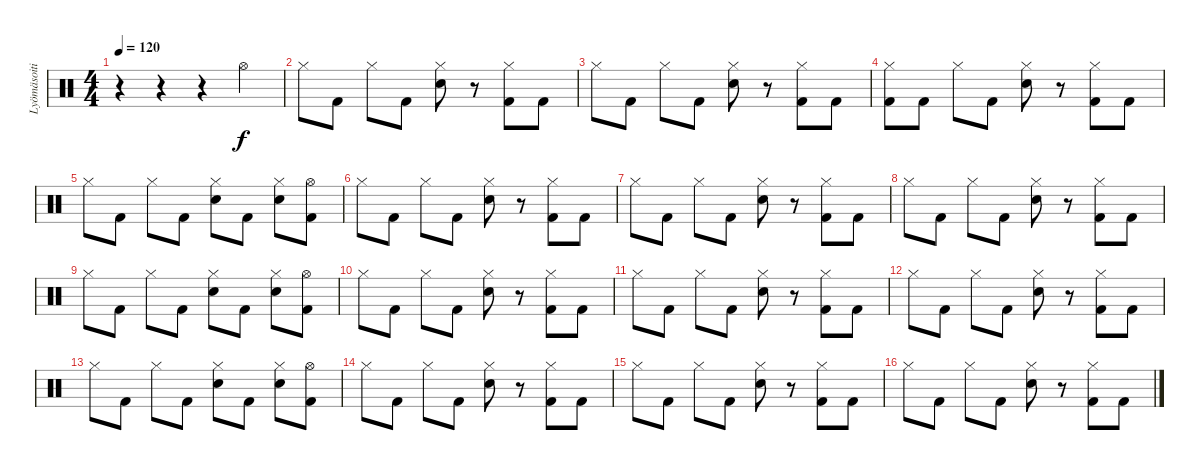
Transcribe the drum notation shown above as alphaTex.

\track ("Lyömäsoitin" "Lyömäsoiti") {instrument percussion}
\staff {score}
\articulation defaults
\ts (4 4)
\tempo 120
\clef neutral
\ks c
r.4{dy f} r.4 r.4 "Hi-Hat (open)".4 |
"Hi-Hat (closed)".8 "Kick (hit) 2".8 "Hi-Hat (closed)".8 "Kick (hit) 2".8 ("Hi-Hat (closed)" "Snare (hit) 2").8 r.8 ("Hi-Hat (closed)" "Kick (hit) 2").8 "Kick (hit) 2".8 |
"Hi-Hat (closed)".8 "Kick (hit) 2".8 "Hi-Hat (closed)".8 "Kick (hit) 2".8 ("Hi-Hat (closed)" "Snare (hit) 2").8 r.8 ("Hi-Hat (closed)" "Kick (hit) 2").8 "Kick (hit) 2".8 |
("Hi-Hat (closed)" "Kick (hit) 2").8 "Kick (hit) 2".8 "Hi-Hat (closed)".8 "Kick (hit) 2".8 ("Hi-Hat (closed)" "Snare (hit) 2").8 r.8 ("Hi-Hat (closed)" "Kick (hit) 2").8 "Kick (hit) 2".8 |
"Hi-Hat (closed)".8 "Kick (hit) 2".8 "Hi-Hat (closed)".8 "Kick (hit) 2".8 ("Hi-Hat (closed)" "Snare (hit) 2").8 "Kick (hit) 2".8 ("Hi-Hat (closed)" "Snare (hit) 2").8 ("Hi-Hat (open)" "Kick (hit) 2").8 |
"Hi-Hat (closed)".8 "Kick (hit) 2".8 "Hi-Hat (closed)".8 "Kick (hit) 2".8 ("Hi-Hat (closed)" "Snare (hit) 2").8 r.8 ("Hi-Hat (closed)" "Kick (hit) 2").8 "Kick (hit) 2".8 |
"Hi-Hat (closed)".8 "Kick (hit) 2".8 "Hi-Hat (closed)".8 "Kick (hit) 2".8 ("Hi-Hat (closed)" "Snare (hit) 2").8 r.8 ("Hi-Hat (closed)" "Kick (hit) 2").8 "Kick (hit) 2".8 |
"Hi-Hat (closed)".8 "Kick (hit) 2".8 "Hi-Hat (closed)".8 "Kick (hit) 2".8 ("Hi-Hat (closed)" "Snare (hit) 2").8 r.8 ("Hi-Hat (closed)" "Kick (hit) 2").8 "Kick (hit) 2".8 |
"Hi-Hat (closed)".8 "Kick (hit) 2".8 "Hi-Hat (closed)".8 "Kick (hit) 2".8 ("Hi-Hat (closed)" "Snare (hit) 2").8 "Kick (hit) 2".8 ("Hi-Hat (closed)" "Snare (hit) 2").8 ("Hi-Hat (open)" "Kick (hit) 2").8 |
"Hi-Hat (closed)".8 "Kick (hit) 2".8 "Hi-Hat (closed)".8 "Kick (hit) 2".8 ("Hi-Hat (closed)" "Snare (hit) 2").8 r.8 ("Hi-Hat (closed)" "Kick (hit) 2").8 "Kick (hit) 2".8 |
"Hi-Hat (closed)".8 "Kick (hit) 2".8 "Hi-Hat (closed)".8 "Kick (hit) 2".8 ("Hi-Hat (closed)" "Snare (hit) 2").8 r.8 ("Hi-Hat (closed)" "Kick (hit) 2").8 "Kick (hit) 2".8 |
"Hi-Hat (closed)".8 "Kick (hit) 2".8 "Hi-Hat (closed)".8 "Kick (hit) 2".8 ("Hi-Hat (closed)" "Snare (hit) 2").8 r.8 ("Hi-Hat (closed)" "Kick (hit) 2").8 "Kick (hit) 2".8 |
"Hi-Hat (closed)".8 "Kick (hit) 2".8 "Hi-Hat (closed)".8 "Kick (hit) 2".8 ("Hi-Hat (closed)" "Snare (hit) 2").8 "Kick (hit) 2".8 ("Hi-Hat (closed)" "Snare (hit) 2").8 ("Hi-Hat (open)" "Kick (hit) 2").8 |
"Hi-Hat (closed)".8 "Kick (hit) 2".8 "Hi-Hat (closed)".8 "Kick (hit) 2".8 ("Hi-Hat (closed)" "Snare (hit) 2").8 r.8 ("Hi-Hat (closed)" "Kick (hit) 2").8 "Kick (hit) 2".8 |
"Hi-Hat (closed)".8 "Kick (hit) 2".8 "Hi-Hat (closed)".8 "Kick (hit) 2".8 ("Hi-Hat (closed)" "Snare (hit) 2").8 r.8 ("Hi-Hat (closed)" "Kick (hit) 2").8 "Kick (hit) 2".8 |
"Hi-Hat (closed)".8 "Kick (hit) 2".8 "Hi-Hat (closed)".8 "Kick (hit) 2".8 ("Hi-Hat (closed)" "Snare (hit) 2").8 r.8 ("Hi-Hat (closed)" "Kick (hit) 2").8 "Kick (hit) 2".8
